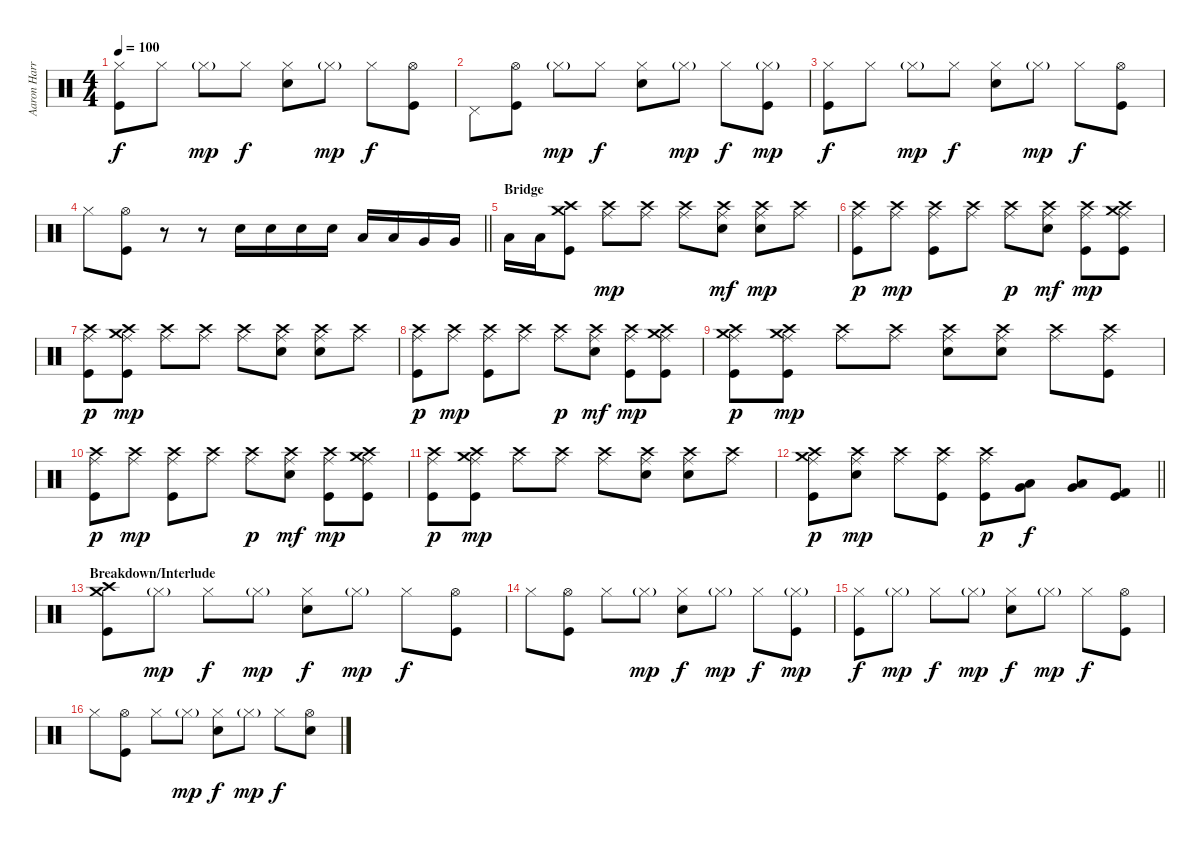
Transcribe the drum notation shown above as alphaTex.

\track ("Aaron Harris" "Aaron Harr") {instrument percussion}
\staff {score}
\articulation defaults
\ts (4 4)
\tempo 100
\clef neutral
\ks c
("Hi-Hat (closed)" "Kick (hit)").8{dy f} "Hi-Hat (closed)".8 "Hi-Hat (closed)"{g}.8{dy mp} "Hi-Hat (closed)".8{dy f} ("Hi-Hat (closed)" "Electric Snare (hit)").8 "Hi-Hat (closed)"{g}.8{dy mp} "Hi-Hat (closed)".8{dy f} ("Hi-Hat (open)" "Kick (hit)").8 |
"Pedal Hi-Hat (hit)".8 ("Hi-Hat (open)" "Kick (hit)").8 "Hi-Hat (closed)"{g}.8{dy mp} "Hi-Hat (closed)".8{dy f} ("Hi-Hat (closed)" "Electric Snare (hit)").8 "Hi-Hat (closed)"{g}.8{dy mp} "Hi-Hat (closed)".8{dy f} ("Hi-Hat (closed)"{g} "Kick (hit)").8{dy mp} |
("Hi-Hat (closed)" "Kick (hit)").8{dy f} "Hi-Hat (closed)".8 "Hi-Hat (closed)"{g}.8{dy mp} "Hi-Hat (closed)".8{dy f} ("Hi-Hat (closed)" "Electric Snare (hit)").8 "Hi-Hat (closed)"{g}.8{dy mp} "Hi-Hat (closed)".8{dy f} ("Hi-Hat (open)" "Kick (hit)").8 |
\barLineRight lightlight "Hi-Hat (closed)".8
("Hi-Hat (open)" "Kick (hit)").8 r.8 r.8 "Electric Snare (hit)".16 "Electric Snare (hit)".16 "Electric Snare (hit)".16 "Electric Snare (hit)".16 "Low Tom (hit)".16 "Low Tom (hit)".16 "Very Low Tom (hit)".16 "Very Low Tom (hit)".16 |
\section ("" "Bridge")
"Low Floor Tom (hit)".16 "Low Floor Tom (hit)".16 ("Crash medium (hit)" "Crash high (hit)" "Kick (hit)").8 ("Crash high (hit)" "Ride (middle)").8{dy mp} ("Crash high (hit)" "Ride (middle)").8 ("Crash high (hit)" "Ride (middle)").8 ("Crash high (hit)" "Ride (middle)" "Electric Snare (hit)").8{dy mf} ("Crash high (hit)" "Ride (middle)" "Electric Snare (hit)").8{dy mp} ("Crash high (hit)" "Ride (middle)").8 |
("Crash high (hit)" "Ride (middle)" "Kick (hit)").8{dy p} ("Crash high (hit)" "Ride (middle)").8{dy mp} ("Crash high (hit)" "Ride (middle)" "Kick (hit)").8 ("Crash high (hit)" "Ride (middle)").8 ("Crash high (hit)" "Ride (middle)").8{dy p} ("Crash high (hit)" "Ride (middle)" "Electric Snare (hit)").8{dy mf} ("Crash high (hit)" "Ride (middle)" "Kick (hit)").8{dy mp} ("Crash medium (hit)" "Crash high (hit)" "Ride (middle)" "Kick (hit)").8 |
("Crash high (hit)" "Ride (middle)" "Kick (hit)").8{dy p} ("Crash medium (hit)" "Crash high (hit)" "Ride (middle)" "Kick (hit)").8{dy mp} ("Crash high (hit)" "Ride (middle)").8 ("Crash high (hit)" "Ride (middle)").8 ("Crash high (hit)" "Ride (middle)").8 ("Crash high (hit)" "Ride (middle)" "Electric Snare (hit)").8 ("Crash high (hit)" "Ride (middle)" "Electric Snare (hit)").8 ("Crash high (hit)" "Ride (middle)").8 |
("Crash high (hit)" "Ride (middle)" "Kick (hit)").8{dy p} ("Crash high (hit)" "Ride (middle)").8{dy mp} ("Crash high (hit)" "Ride (middle)" "Kick (hit)").8 ("Crash high (hit)" "Ride (middle)").8 ("Crash high (hit)" "Ride (middle)").8{dy p} ("Crash high (hit)" "Ride (middle)" "Electric Snare (hit)").8{dy mf} ("Crash high (hit)" "Ride (middle)" "Kick (hit)").8{dy mp} ("Crash medium (hit)" "Crash high (hit)" "Ride (middle)" "Kick (hit)").8 |
("Crash medium (hit)" "Crash high (hit)" "Ride (middle)" "Kick (hit)").8{dy p} ("Crash medium (hit)" "Crash high (hit)" "Ride (middle)" "Kick (hit)").8{dy mp} ("Crash high (hit)" "Ride (middle)").8 ("Crash high (hit)" "Ride (middle)").8 ("Crash high (hit)" "Ride (middle)" "Electric Snare (hit)").8 ("Crash high (hit)" "Ride (middle)" "Electric Snare (hit)").8 ("Crash high (hit)" "Ride (middle)").8 ("Crash high (hit)" "Ride (middle)" "Kick (hit)").8 |
("Crash high (hit)" "Ride (middle)" "Kick (hit)").8{dy p} ("Crash high (hit)" "Ride (middle)").8{dy mp} ("Crash high (hit)" "Ride (middle)" "Kick (hit)").8 ("Crash high (hit)" "Ride (middle)").8 ("Crash high (hit)" "Ride (middle)").8{dy p} ("Crash high (hit)" "Ride (middle)" "Electric Snare (hit)").8{dy mf} ("Crash high (hit)" "Ride (middle)" "Kick (hit)").8{dy mp} ("Crash medium (hit)" "Crash high (hit)" "Ride (middle)" "Kick (hit)").8 |
("Crash high (hit)" "Ride (middle)" "Kick (hit)").8{dy p} ("Crash medium (hit)" "Crash high (hit)" "Ride (middle)" "Kick (hit)").8{dy mp} ("Crash high (hit)" "Ride (middle)").8 ("Crash high (hit)" "Ride (middle)").8 ("Crash high (hit)" "Ride (middle)").8 ("Crash high (hit)" "Ride (middle)" "Electric Snare (hit)").8 ("Crash high (hit)" "Ride (middle)" "Electric Snare (hit)").8 ("Crash high (hit)" "Ride (middle)").8 |
\barLineRight lightlight
("Crash medium (hit)" "Crash high (hit)" "Ride (middle)" "Kick (hit)").8{dy p} ("Crash high (hit)" "Ride (middle)" "Electric Snare (hit)").8{dy mp} ("Crash high (hit)" "Ride (middle)").8 ("Crash high (hit)" "Ride (middle)" "Kick (hit)").8 ("Crash high (hit)" "Ride (middle)" "Kick (hit)").8{dy p} ("Low Tom (hit)" "Very Low Tom (hit)").8{dy f} ("Low Tom (hit)" "Very Low Tom (hit)").8 ("Kick (hit) 2" "Kick (hit)").8 |
\section ("" "Breakdown/Interlude")
("Crash medium (hit)" "Crash high (hit)" "Kick (hit)").8 "Hi-Hat (closed)"{g}.8{dy mp} "Hi-Hat (closed)".8{dy f} "Hi-Hat (closed)"{g}.8{dy mp} ("Hi-Hat (closed)" "Electric Snare (hit)").8{dy f} "Hi-Hat (closed)"{g}.8{dy mp} "Hi-Hat (closed)".8{dy f} ("Hi-Hat (open)" "Kick (hit)").8 |
"Hi-Hat (closed)".8 ("Hi-Hat (open)" "Kick (hit)").8 "Hi-Hat (closed)".8 "Hi-Hat (closed)"{g}.8{dy mp} ("Hi-Hat (closed)" "Electric Snare (hit)").8{dy f} "Hi-Hat (closed)"{g}.8{dy mp} "Hi-Hat (closed)".8{dy f} ("Hi-Hat (closed)"{g} "Kick (hit)").8{dy mp} |
("Hi-Hat (closed)" "Kick (hit)").8{dy f} "Hi-Hat (closed)"{g}.8{dy mp} "Hi-Hat (closed)".8{dy f} "Hi-Hat (closed)"{g}.8{dy mp} ("Hi-Hat (closed)" "Electric Snare (hit)").8{dy f} "Hi-Hat (closed)"{g}.8{dy mp} "Hi-Hat (closed)".8{dy f} ("Hi-Hat (open)" "Kick (hit)").8 |
"Hi-Hat (closed)".8 ("Hi-Hat (open)" "Kick (hit)").8 "Hi-Hat (closed)".8 "Hi-Hat (closed)"{g}.8{dy mp} ("Hi-Hat (closed)" "Electric Snare (hit)").8{dy f} "Hi-Hat (closed)"{g}.8{dy mp} "Hi-Hat (closed)".8{dy f} ("Hi-Hat (open)" "Electric Snare (hit)").8
